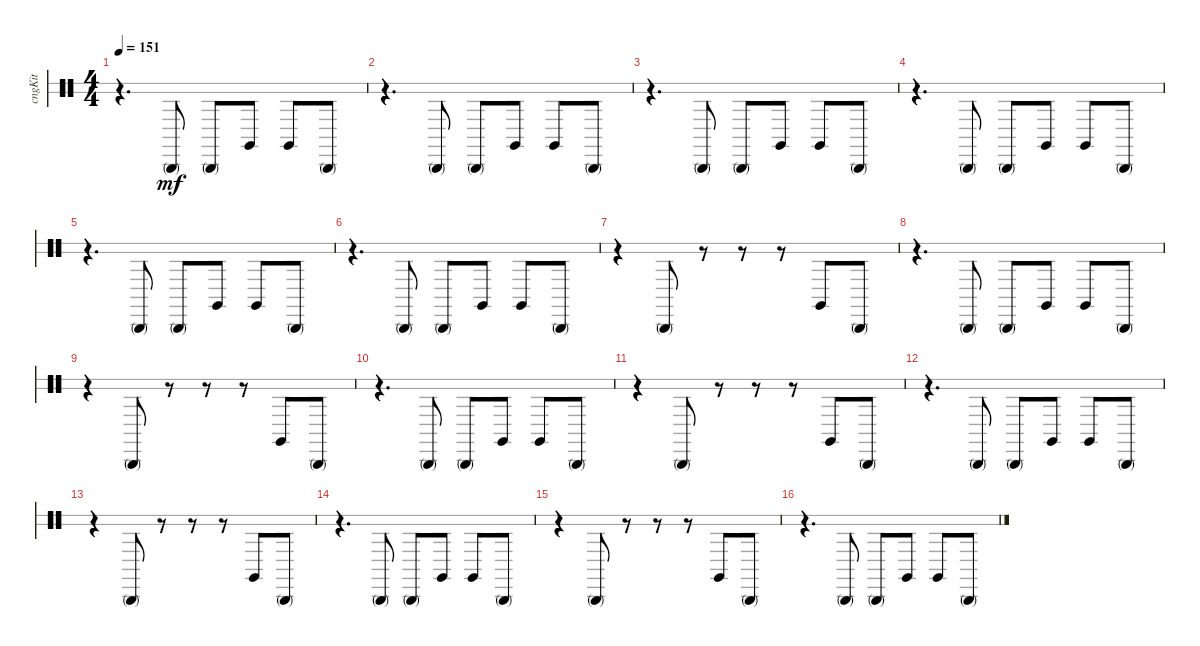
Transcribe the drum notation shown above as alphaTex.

\bracketExtendMode groupsimilarinstruments
\track ("Congas" "cngKit") {instrument percussion}
\staff {score 2}
\articulation defaults
\ts (4 4)
\tempo 151
\clef neutral
\ks aminor
r.4{d dy mf} "Conga high (mute)".8 "Conga high (mute)".8 "Conga high (hit)".8 "Conga high (hit)".8 "Conga high (mute)".8 |
r.4{d} "Conga high (mute)".8 "Conga high (mute)".8 "Conga high (hit)".8 "Conga high (hit)".8 "Conga high (mute)".8 |
r.4{d} "Conga high (mute)".8 "Conga high (mute)".8 "Conga high (hit)".8 "Conga high (hit)".8 "Conga high (mute)".8 |
r.4{d} "Conga high (mute)".8 "Conga high (mute)".8 "Conga high (hit)".8 "Conga high (hit)".8 "Conga high (mute)".8 |
r.4{d} "Conga high (mute)".8 "Conga high (mute)".8 "Conga high (hit)".8 "Conga high (hit)".8 "Conga high (mute)".8 |
r.4{d} "Conga high (mute)".8 "Conga high (mute)".8 "Conga high (hit)".8 "Conga high (hit)".8 "Conga high (mute)".8 |
r.4 "Conga high (mute)".8 r.8 r.8 r.8 "Conga high (hit)".8 "Conga high (mute)".8 |
r.4{d} "Conga high (mute)".8 "Conga high (mute)".8 "Conga high (hit)".8 "Conga high (hit)".8 "Conga high (mute)".8 |
r.4 "Conga high (mute)".8 r.8 r.8 r.8 "Conga high (hit)".8 "Conga high (mute)".8 |
r.4{d} "Conga high (mute)".8 "Conga high (mute)".8 "Conga high (hit)".8 "Conga high (hit)".8 "Conga high (mute)".8 |
r.4 "Conga high (mute)".8 r.8 r.8 r.8 "Conga high (hit)".8 "Conga high (mute)".8 |
r.4{d} "Conga high (mute)".8 "Conga high (mute)".8 "Conga high (hit)".8 "Conga high (hit)".8 "Conga high (mute)".8 |
r.4 "Conga high (mute)".8 r.8 r.8 r.8 "Conga high (hit)".8 "Conga high (mute)".8 |
r.4{d} "Conga high (mute)".8 "Conga high (mute)".8 "Conga high (hit)".8 "Conga high (hit)".8 "Conga high (mute)".8 |
r.4 "Conga high (mute)".8 r.8 r.8 r.8 "Conga high (hit)".8 "Conga high (mute)".8 |
r.4{d} "Conga high (mute)".8 "Conga high (mute)".8 "Conga high (hit)".8 "Conga high (hit)".8 "Conga high (mute)".8
